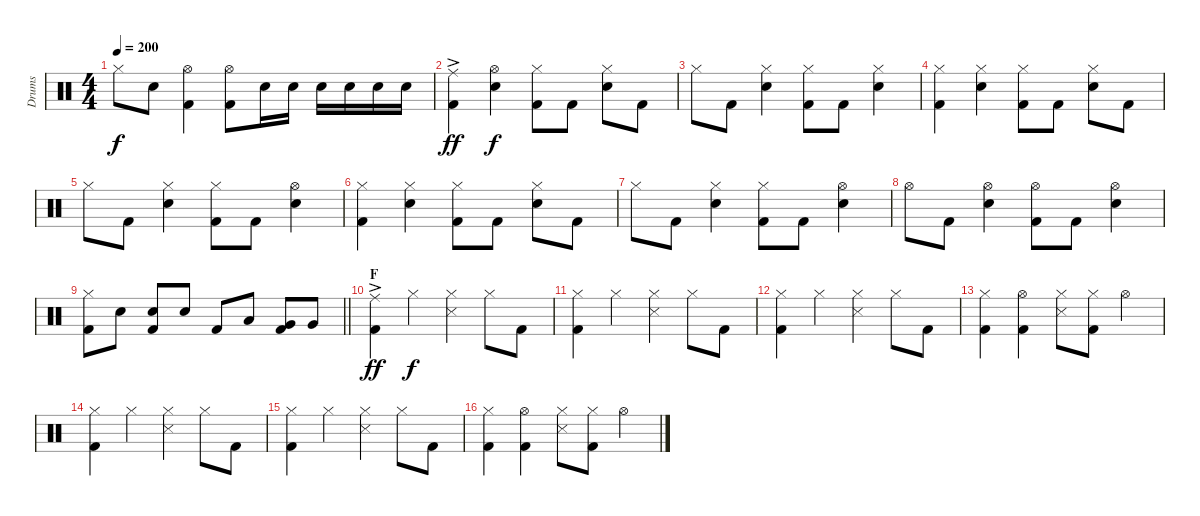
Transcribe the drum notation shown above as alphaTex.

\track ("Drums" "Drums") {instrument percussion}
\staff {score}
\articulation defaults
\ts (4 4)
\tempo 200
\clef neutral
\ks c "Hi-Hat (closed)".8{dy f} "Snare (hit) 2".8
("Hi-Hat (open)" "Kick (hit) 2").4 ("Hi-Hat (open)" "Kick (hit) 2").8 "Snare (hit) 2".16 "Snare (hit) 2".16 "Snare (hit) 2".16 "Snare (hit) 2".16 "Snare (hit) 2".16 "Snare (hit) 2".16 |
("Ride (middle)"{ac} "Kick (hit) 2").4{dy ff} ("Hi-Hat (open)" "Snare (hit) 2").4{dy f} ("Hi-Hat (closed)" "Kick (hit) 2").8 "Kick (hit) 2".8 ("Hi-Hat (closed)" "Snare (hit) 2").8 "Kick (hit) 2".8 |
"Hi-Hat (closed)".8 "Kick (hit) 2".8 ("Hi-Hat (closed)" "Snare (hit) 2").4 ("Hi-Hat (closed)" "Kick (hit) 2").8 "Kick (hit) 2".8 ("Hi-Hat (closed)" "Snare (hit) 2").4 |
("Hi-Hat (closed)" "Kick (hit) 2").4 ("Hi-Hat (closed)" "Snare (hit) 2").4 ("Hi-Hat (closed)" "Kick (hit) 2").8 "Kick (hit) 2".8 ("Hi-Hat (closed)" "Snare (hit) 2").8 "Kick (hit) 2".8 |
"Hi-Hat (closed)".8 "Kick (hit) 2".8 ("Hi-Hat (closed)" "Snare (hit) 2").4 ("Hi-Hat (closed)" "Kick (hit) 2").8 "Kick (hit) 2".8 ("Hi-Hat (open)" "Snare (hit) 2").4 |
("Hi-Hat (closed)" "Kick (hit) 2").4 ("Hi-Hat (closed)" "Snare (hit) 2").4 ("Hi-Hat (closed)" "Kick (hit) 2").8 "Kick (hit) 2".8 ("Hi-Hat (closed)" "Snare (hit) 2").8 "Kick (hit) 2".8 |
"Hi-Hat (closed)".8 "Kick (hit) 2".8 ("Hi-Hat (closed)" "Snare (hit) 2").4 ("Hi-Hat (closed)" "Kick (hit) 2").8 "Kick (hit) 2".8 ("Hi-Hat (open)" "Snare (hit) 2").4 |
"Hi-Hat (open)".8 "Kick (hit) 2".8 ("Hi-Hat (open)" "Snare (hit) 2").4 ("Hi-Hat (open)" "Kick (hit) 2").8 "Kick (hit) 2".8 ("Hi-Hat (open)" "Snare (hit) 2").4 |
\barLineRight lightlight
("Hi-Hat (closed)" "Kick (hit) 2").8 "Snare (hit) 2".8 ("Snare (hit) 2" "Kick (hit) 2").8 "Snare (hit) 2".8 "Kick (hit) 2".8 "Low Tom (hit)".8 ("Very Low Tom (hit)" "Kick (hit) 2").8 "Very Low Tom (hit)".8 |
\section ("" "F")
("Ride (middle)"{ac} "Kick (hit) 2").4{dy ff} "Hi-Hat (closed)".4{dy f} ("Hi-Hat (closed)" "Snare (side stick) 3").4 "Hi-Hat (closed)".8 "Kick (hit) 2".8 |
("Hi-Hat (closed)" "Kick (hit) 2").4 "Hi-Hat (closed)".4 ("Hi-Hat (closed)" "Snare (side stick) 3").4 "Hi-Hat (closed)".8 "Kick (hit) 2".8 |
("Hi-Hat (closed)" "Kick (hit) 2").4 "Hi-Hat (closed)".4 ("Hi-Hat (closed)" "Snare (side stick) 3").4 "Hi-Hat (closed)".8 "Kick (hit) 2".8 |
("Hi-Hat (closed)" "Kick (hit) 2").4 ("Hi-Hat (open)" "Kick (hit) 2").4 ("Hi-Hat (closed)" "Snare (side stick) 3").8 ("Hi-Hat (closed)" "Kick (hit) 2").8 "Hi-Hat (open)".4 |
("Hi-Hat (closed)" "Kick (hit) 2").4 "Hi-Hat (closed)".4 ("Hi-Hat (closed)" "Snare (side stick) 3").4 "Hi-Hat (closed)".8 "Kick (hit) 2".8 |
("Hi-Hat (closed)" "Kick (hit) 2").4 "Hi-Hat (closed)".4 ("Hi-Hat (closed)" "Snare (side stick) 3").4 "Hi-Hat (closed)".8 "Kick (hit) 2".8 |
("Hi-Hat (closed)" "Kick (hit) 2").4 ("Hi-Hat (open)" "Kick (hit) 2").4 ("Hi-Hat (closed)" "Snare (side stick) 3").8 ("Hi-Hat (closed)" "Kick (hit) 2").8 "Hi-Hat (open)".4
